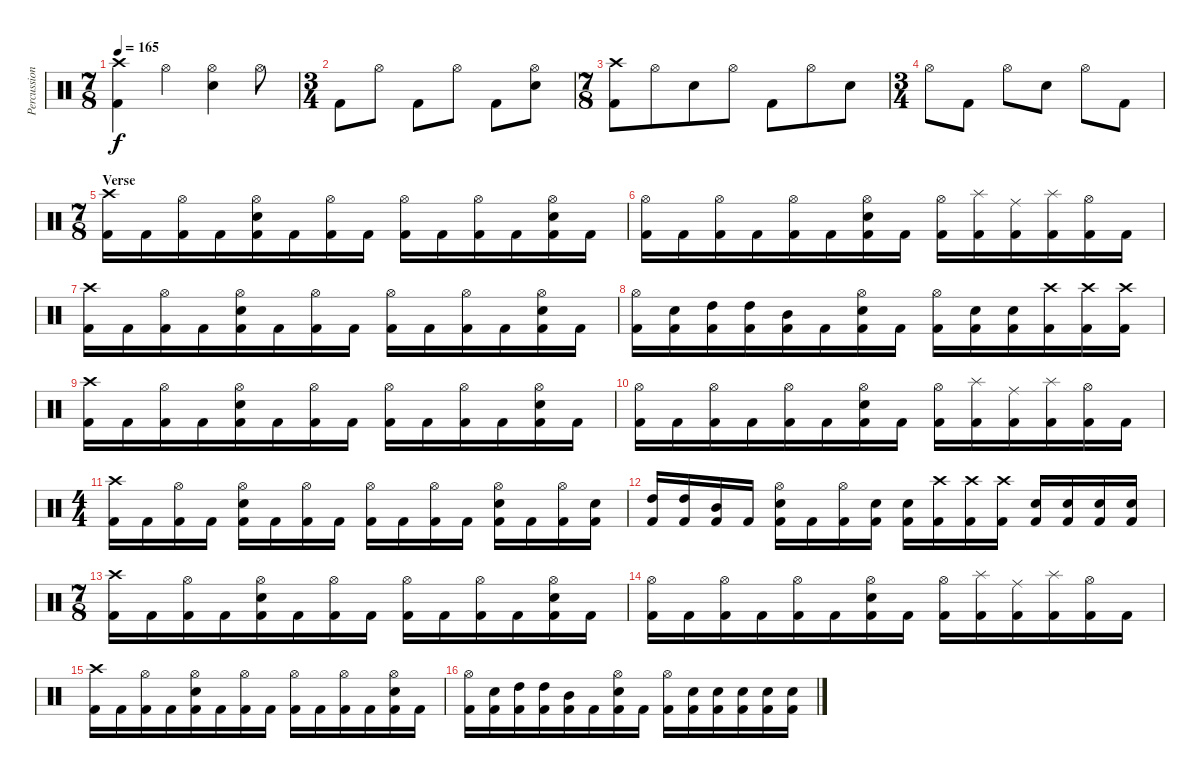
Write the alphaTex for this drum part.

\track ("Percussion" "Percussion") {instrument percussion}
\staff {score}
\articulation defaults
\ts (7 8)
\tempo 165
\clef neutral
\ks c
("Crash high (hit)" "Kick (hit) 2").4{dy f} "Hi-Hat (open)".4 ("Hi-Hat (open)" "Electric Snare (hit)").4 "Hi-Hat (open)".8 |
\ts (3 4)
"Kick (hit) 2".8 "Hi-Hat (open)".8 "Kick (hit) 2".8 "Hi-Hat (open)".8 "Kick (hit) 2".8 ("Hi-Hat (open)" "Electric Snare (hit)").8 |
\ts (7 8)
("Crash high (hit)" "Kick (hit) 2").8 "Hi-Hat (open)".8 "Electric Snare (hit)".8 "Hi-Hat (open)".8 "Kick (hit) 2".8 "Hi-Hat (open)".8 "Electric Snare (hit)".8 |
\ts (3 4)
"Hi-Hat (open)".8 "Kick (hit) 2".8 "Hi-Hat (open)".8 "Electric Snare (hit)".8 "Hi-Hat (open)".8 "Kick (hit) 2".8 |
\ts (7 8)
\section ("" "Verse")
("Crash high (hit)" "Kick (hit) 2").16 "Kick (hit) 2".16 ("Hi-Hat (open)" "Kick (hit) 2").16 "Kick (hit) 2".16 ("Hi-Hat (open)" "Electric Snare (hit)" "Kick (hit) 2").16 "Kick (hit) 2".16 ("Hi-Hat (open)" "Kick (hit) 2").16 "Kick (hit) 2".16 ("Hi-Hat (open)" "Kick (hit) 2").16 "Kick (hit) 2".16 ("Hi-Hat (open)" "Kick (hit) 2").16 "Kick (hit) 2".16 ("Hi-Hat (open)" "Electric Snare (hit)" "Kick (hit) 2").16 "Kick (hit) 2".16 |
("Hi-Hat (open)" "Kick (hit) 2").16 "Kick (hit) 2".16 ("Hi-Hat (open)" "Kick (hit) 2").16 "Kick (hit) 2".16 ("Hi-Hat (open)" "Kick (hit) 2").16 "Kick (hit) 2".16 ("Hi-Hat (open)" "Electric Snare (hit)" "Kick (hit) 2").16 "Kick (hit) 2".16 ("Hi-Hat (open)" "Kick (hit) 2").16 ("Splash (hit)" "Kick (hit) 2").16 ("Ride (middle)" "Kick (hit) 2").16 ("Splash (hit)" "Kick (hit) 2").16 ("Hi-Hat (open)" "Kick (hit) 2").16 "Kick (hit) 2".16 |
("Crash high (hit)" "Kick (hit) 2").16 "Kick (hit) 2".16 ("Hi-Hat (open)" "Kick (hit) 2").16 "Kick (hit) 2".16 ("Hi-Hat (open)" "Electric Snare (hit)" "Kick (hit) 2").16 "Kick (hit) 2".16 ("Hi-Hat (open)" "Kick (hit) 2").16 "Kick (hit) 2".16 ("Hi-Hat (open)" "Kick (hit) 2").16 "Kick (hit) 2".16 ("Hi-Hat (open)" "Kick (hit) 2").16 "Kick (hit) 2".16 ("Hi-Hat (open)" "Electric Snare (hit)" "Kick (hit) 2").16 "Kick (hit) 2".16 |
("Hi-Hat (open)" "Kick (hit) 2").16 ("Electric Snare (hit)" "Kick (hit) 2").16 ("High Tom (hit)" "Kick (hit) 2").16 ("High Tom (hit)" "Kick (hit) 2").16 ("Mid Tom (hit)" "Kick (hit) 2").16 "Kick (hit) 2".16 ("Hi-Hat (open)" "Electric Snare (hit)" "Kick (hit) 2").16 "Kick (hit) 2".16 ("Hi-Hat (open)" "Kick (hit) 2").16 ("Electric Snare (hit)" "Kick (hit) 2").16 ("Electric Snare (hit)" "Kick (hit) 2").16 ("Crash high (hit)" "Kick (hit) 2").16 ("Crash high (hit)" "Kick (hit) 2").16 ("Crash high (hit)" "Kick (hit) 2").16 |
("Crash high (hit)" "Kick (hit) 2").16 "Kick (hit) 2".16 ("Hi-Hat (open)" "Kick (hit) 2").16 "Kick (hit) 2".16 ("Hi-Hat (open)" "Electric Snare (hit)" "Kick (hit) 2").16 "Kick (hit) 2".16 ("Hi-Hat (open)" "Kick (hit) 2").16 "Kick (hit) 2".16 ("Hi-Hat (open)" "Kick (hit) 2").16 "Kick (hit) 2".16 ("Hi-Hat (open)" "Kick (hit) 2").16 "Kick (hit) 2".16 ("Hi-Hat (open)" "Electric Snare (hit)" "Kick (hit) 2").16 "Kick (hit) 2".16 |
("Hi-Hat (open)" "Kick (hit) 2").16 "Kick (hit) 2".16 ("Hi-Hat (open)" "Kick (hit) 2").16 "Kick (hit) 2".16 ("Hi-Hat (open)" "Kick (hit) 2").16 "Kick (hit) 2".16 ("Hi-Hat (open)" "Electric Snare (hit)" "Kick (hit) 2").16 "Kick (hit) 2".16 ("Hi-Hat (open)" "Kick (hit) 2").16 ("Splash (hit)" "Kick (hit) 2").16 ("Ride (middle)" "Kick (hit) 2").16 ("Splash (hit)" "Kick (hit) 2").16 ("Hi-Hat (open)" "Kick (hit) 2").16 "Kick (hit) 2".16 |
\ts (4 4)
("Crash high (hit)" "Kick (hit) 2").16 "Kick (hit) 2".16 ("Hi-Hat (open)" "Kick (hit) 2").16 "Kick (hit) 2".16 ("Hi-Hat (open)" "Electric Snare (hit)" "Kick (hit) 2").16 "Kick (hit) 2".16 ("Hi-Hat (open)" "Kick (hit) 2").16 "Kick (hit) 2".16 ("Hi-Hat (open)" "Kick (hit) 2").16 "Kick (hit) 2".16 ("Hi-Hat (open)" "Kick (hit) 2").16 "Kick (hit) 2".16 ("Hi-Hat (open)" "Electric Snare (hit)" "Kick (hit) 2").16 "Kick (hit) 2".16 ("Hi-Hat (open)" "Kick (hit) 2").16 ("Electric Snare (hit)" "Kick (hit) 2").16 |
("High Tom (hit)" "Kick (hit) 2").16 ("High Tom (hit)" "Kick (hit) 2").16 ("Mid Tom (hit)" "Kick (hit) 2").16 "Kick (hit) 2".16 ("Hi-Hat (open)" "Electric Snare (hit)" "Kick (hit) 2").16 "Kick (hit) 2".16 ("Hi-Hat (open)" "Kick (hit) 2").16 ("Electric Snare (hit)" "Kick (hit) 2").16 ("Electric Snare (hit)" "Kick (hit) 2").16 ("Crash high (hit)" "Kick (hit) 2").16 ("Crash high (hit)" "Kick (hit) 2").16 ("Crash high (hit)" "Kick (hit) 2").16 ("Electric Snare (hit)" "Kick (hit) 2").16 ("Electric Snare (hit)" "Kick (hit) 2").16 ("Electric Snare (hit)" "Kick (hit) 2").16 ("Electric Snare (hit)" "Kick (hit) 2").16 |
\ts (7 8)
("Crash high (hit)" "Kick (hit) 2").16 "Kick (hit) 2".16 ("Hi-Hat (open)" "Kick (hit) 2").16 "Kick (hit) 2".16 ("Hi-Hat (open)" "Electric Snare (hit)" "Kick (hit) 2").16 "Kick (hit) 2".16 ("Hi-Hat (open)" "Kick (hit) 2").16 "Kick (hit) 2".16 ("Hi-Hat (open)" "Kick (hit) 2").16 "Kick (hit) 2".16 ("Hi-Hat (open)" "Kick (hit) 2").16 "Kick (hit) 2".16 ("Hi-Hat (open)" "Electric Snare (hit)" "Kick (hit) 2").16 "Kick (hit) 2".16 |
("Hi-Hat (open)" "Kick (hit) 2").16 "Kick (hit) 2".16 ("Hi-Hat (open)" "Kick (hit) 2").16 "Kick (hit) 2".16 ("Hi-Hat (open)" "Kick (hit) 2").16 "Kick (hit) 2".16 ("Hi-Hat (open)" "Electric Snare (hit)" "Kick (hit) 2").16 "Kick (hit) 2".16 ("Hi-Hat (open)" "Kick (hit) 2").16 ("Splash (hit)" "Kick (hit) 2").16 ("Ride (middle)" "Kick (hit) 2").16 ("Splash (hit)" "Kick (hit) 2").16 ("Hi-Hat (open)" "Kick (hit) 2").16 "Kick (hit) 2".16 |
("Crash high (hit)" "Kick (hit) 2").16 "Kick (hit) 2".16 ("Hi-Hat (open)" "Kick (hit) 2").16 "Kick (hit) 2".16 ("Hi-Hat (open)" "Electric Snare (hit)" "Kick (hit) 2").16 "Kick (hit) 2".16 ("Hi-Hat (open)" "Kick (hit) 2").16 "Kick (hit) 2".16 ("Hi-Hat (open)" "Kick (hit) 2").16 "Kick (hit) 2".16 ("Hi-Hat (open)" "Kick (hit) 2").16 "Kick (hit) 2".16 ("Hi-Hat (open)" "Electric Snare (hit)" "Kick (hit) 2").16 "Kick (hit) 2".16 |
("Hi-Hat (open)" "Kick (hit) 2").16 ("Electric Snare (hit)" "Kick (hit) 2").16 ("High Tom (hit)" "Kick (hit) 2").16 ("High Tom (hit)" "Kick (hit) 2").16 ("Mid Tom (hit)" "Kick (hit) 2").16 "Kick (hit) 2".16 ("Hi-Hat (open)" "Electric Snare (hit)" "Kick (hit) 2").16 "Kick (hit) 2".16 ("Hi-Hat (open)" "Kick (hit) 2").16 ("Electric Snare (hit)" "Kick (hit) 2").16 ("Electric Snare (hit)" "Kick (hit) 2").16 ("Electric Snare (hit)" "Kick (hit) 2").16 ("Electric Snare (hit)" "Kick (hit) 2").16 ("Electric Snare (hit)" "Kick (hit) 2").16
